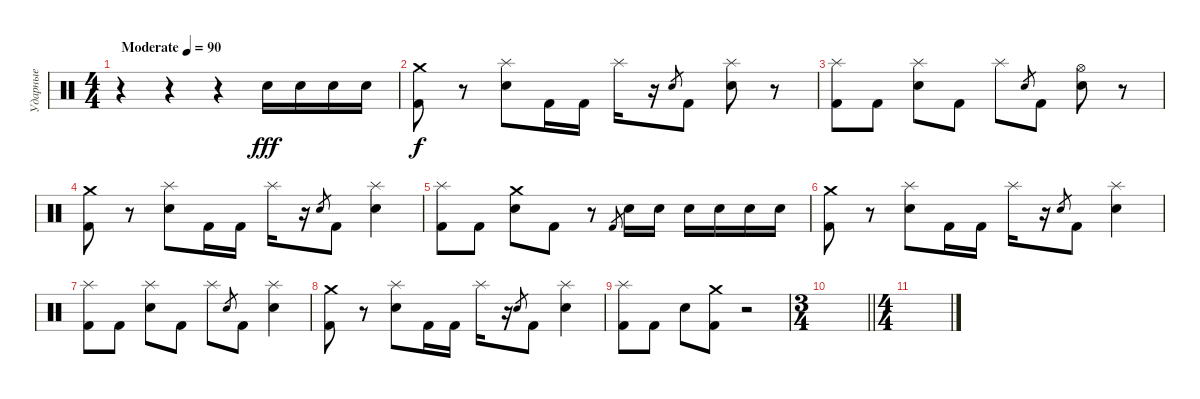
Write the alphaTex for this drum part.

\track ("Ударные" "Ударные") {instrument percussion}
\staff {score}
\articulation defaults
\ts (4 4)
\tempo (90 "Moderate")
\clef neutral
\ks c
r.4{dy fff} r.4 r.4 "Electric Snare (hit)".16 "Electric Snare (hit)".16 "Electric Snare (hit)".16 "Electric Snare (hit)".16 |
("Crash medium (hit)" "Kick (hit) 2").8{dy f} r.8 ("Splash (hit)" "Electric Snare (hit)").8 "Kick (hit) 2".16 "Kick (hit) 2".16 "Splash (hit)".16 r.16 "Electric Snare (hit)".8{gr} "Kick (hit) 2".8 ("Splash (hit)" "Electric Snare (hit)").8 r.8 |
("Splash (hit)" "Kick (hit) 2").8 "Kick (hit) 2".8 ("Splash (hit)" "Electric Snare (hit)").8 "Kick (hit) 2".8 "Splash (hit)".8 "Electric Snare (hit)".8{gr} "Kick (hit) 2".8 ("Hi-Hat (open)" "Electric Snare (hit)").8 r.8 |
("Crash medium (hit)" "Kick (hit) 2").8 r.8 ("Splash (hit)" "Electric Snare (hit)").8 "Kick (hit) 2".16 "Kick (hit) 2".16 "Splash (hit)".16 r.16 "Electric Snare (hit)".8{gr} "Kick (hit) 2".8 ("Splash (hit)" "Electric Snare (hit)").4 |
("Splash (hit)" "Kick (hit) 2").8 "Kick (hit) 2".8 ("Crash medium (hit)" "Electric Snare (hit)").8 "Kick (hit) 2".8 r.8 "Kick (hit) 2".8{gr} "Electric Snare (hit)".16 "Electric Snare (hit)".16 "Electric Snare (hit)".16 "Electric Snare (hit)".16 "Electric Snare (hit)".16 "Electric Snare (hit)".16 |
("Crash medium (hit)" "Kick (hit) 2").8 r.8 ("Splash (hit)" "Electric Snare (hit)").8 "Kick (hit) 2".16 "Kick (hit) 2".16 "Splash (hit)".16 r.16 "Electric Snare (hit)".8{gr} "Kick (hit) 2".8 ("Splash (hit)" "Electric Snare (hit)").4 |
("Splash (hit)" "Kick (hit) 2").8 "Kick (hit) 2".8 ("Splash (hit)" "Electric Snare (hit)").8 "Kick (hit) 2".8 "Splash (hit)".8 "Electric Snare (hit)".8{gr} "Kick (hit) 2".8 ("Splash (hit)" "Electric Snare (hit)").4 |
("Crash medium (hit)" "Kick (hit) 2").8 r.8 ("Splash (hit)" "Electric Snare (hit)").8 "Kick (hit) 2".16 "Kick (hit) 2".16 "Splash (hit)".16 r.16 "Electric Snare (hit)".8{gr} "Kick (hit) 2".8 ("Splash (hit)" "Electric Snare (hit)").4 |
("Splash (hit)" "Kick (hit) 2").8 "Kick (hit) 2".8 "Electric Snare (hit)".8 ("Crash medium (hit)" "Kick (hit) 2").8 r.2 |
\ts (3 4)
\barLineRight lightlight
|
\ts (4 4)
